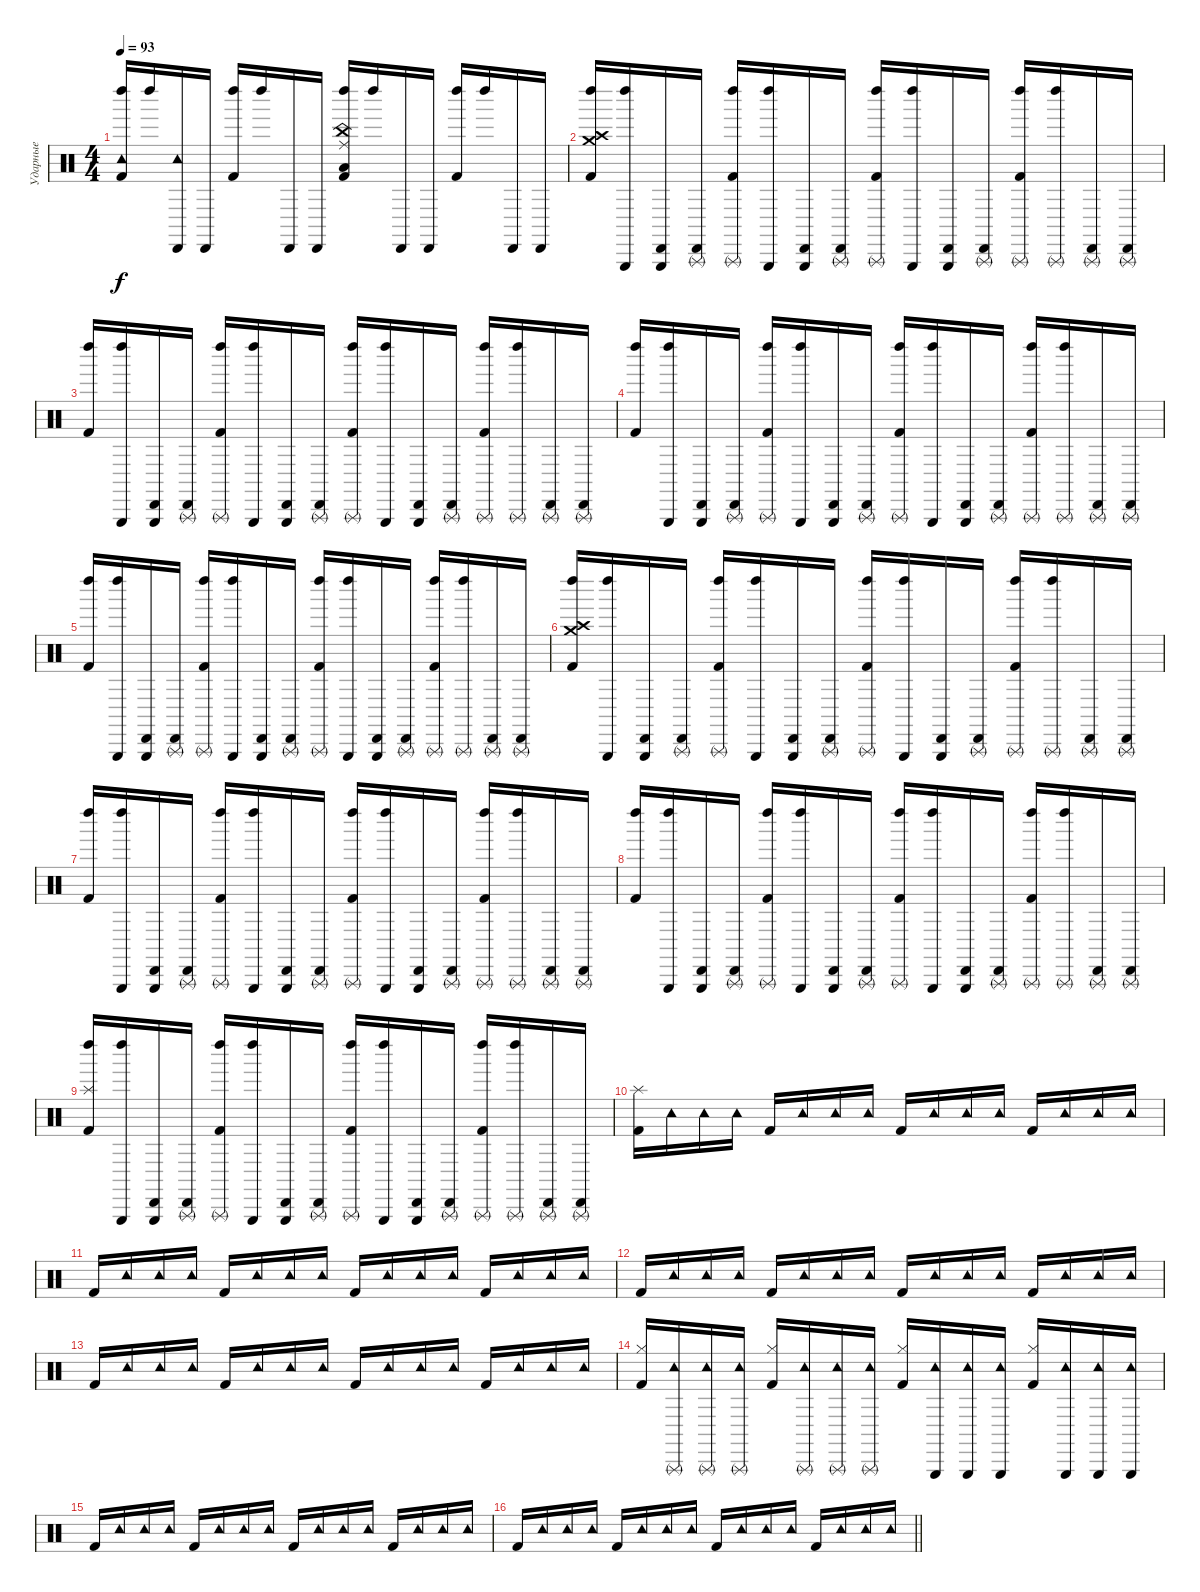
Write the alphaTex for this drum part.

\track ("Ударные" "Ударные") {solo instrument percussion}
\staff {score}
\articulation defaults
\ts (4 4)
\tempo 93
\clef neutral
\ks c
("Kick (hit) 2" "Left Maraca (hit)" "Tambourine (hit)").16{dy f} "Left Maraca (hit)".16 ("Cabasa (hit)" "Tambourine (hit)").16 "Cabasa (hit)".16 ("Kick (hit) 2" "Left Maraca (hit)").16 "Left Maraca (hit)".16 "Cabasa (hit)".16 "Cabasa (hit)".16 ("Kick (hit) 2" "Left Maraca (hit)" "Low Tom (hit)" "Ride (middle)" "China (hit)").16 "Left Maraca (hit)".16 "Cabasa (hit)".16 "Cabasa (hit)".16 ("Kick (hit) 2" "Left Maraca (hit)").16 "Left Maraca (hit)".16 "Cabasa (hit)".16 "Cabasa (hit)".16 |
("Kick (hit) 2" "Left Maraca (hit)" "Crash high (hit)" "Crash medium (hit)").16 ("Left Maraca (hit)" "Triangle (hit)").16 ("Cabasa (hit)" "Triangle (hit)").16 ("Cabasa (hit)" "Triangle (rnute)").16 ("Kick (hit) 2" "Left Maraca (hit)" "Triangle (rnute)").16 ("Left Maraca (hit)" "Triangle (hit)").16 ("Cabasa (hit)" "Triangle (hit)").16 ("Cabasa (hit)" "Triangle (rnute)").16 ("Kick (hit) 2" "Left Maraca (hit)" "Triangle (rnute)").16 ("Left Maraca (hit)" "Triangle (hit)").16 ("Cabasa (hit)" "Triangle (hit)").16 ("Cabasa (hit)" "Triangle (rnute)").16 ("Kick (hit) 2" "Left Maraca (hit)" "Triangle (rnute)").16 ("Left Maraca (hit)" "Triangle (rnute)").16 ("Cabasa (hit)" "Triangle (rnute)").16 ("Cabasa (hit)" "Triangle (rnute)").16 |
("Kick (hit) 2" "Left Maraca (hit)").16 ("Left Maraca (hit)" "Triangle (hit)").16 ("Cabasa (hit)" "Triangle (hit)").16 ("Cabasa (hit)" "Triangle (rnute)").16 ("Kick (hit) 2" "Left Maraca (hit)" "Triangle (rnute)").16 ("Left Maraca (hit)" "Triangle (hit)").16 ("Cabasa (hit)" "Triangle (hit)").16 ("Cabasa (hit)" "Triangle (rnute)").16 ("Kick (hit) 2" "Left Maraca (hit)" "Triangle (rnute)").16 ("Left Maraca (hit)" "Triangle (hit)").16 ("Cabasa (hit)" "Triangle (hit)").16 ("Cabasa (hit)" "Triangle (rnute)").16 ("Kick (hit) 2" "Left Maraca (hit)" "Triangle (rnute)").16 ("Left Maraca (hit)" "Triangle (rnute)").16 ("Cabasa (hit)" "Triangle (rnute)").16 ("Cabasa (hit)" "Triangle (rnute)").16 |
("Kick (hit) 2" "Left Maraca (hit)").16 ("Left Maraca (hit)" "Triangle (hit)").16 ("Cabasa (hit)" "Triangle (hit)").16 ("Cabasa (hit)" "Triangle (rnute)").16 ("Kick (hit) 2" "Left Maraca (hit)" "Triangle (rnute)").16 ("Left Maraca (hit)" "Triangle (hit)").16 ("Cabasa (hit)" "Triangle (hit)").16 ("Cabasa (hit)" "Triangle (rnute)").16 ("Kick (hit) 2" "Left Maraca (hit)" "Triangle (rnute)").16 ("Left Maraca (hit)" "Triangle (hit)").16 ("Cabasa (hit)" "Triangle (hit)").16 ("Cabasa (hit)" "Triangle (rnute)").16 ("Kick (hit) 2" "Left Maraca (hit)" "Triangle (rnute)").16 ("Left Maraca (hit)" "Triangle (rnute)").16 ("Cabasa (hit)" "Triangle (rnute)").16 ("Cabasa (hit)" "Triangle (rnute)").16 |
("Kick (hit) 2" "Left Maraca (hit)").16 ("Left Maraca (hit)" "Triangle (hit)").16 ("Cabasa (hit)" "Triangle (hit)").16 ("Cabasa (hit)" "Triangle (rnute)").16 ("Kick (hit) 2" "Left Maraca (hit)" "Triangle (rnute)").16 ("Left Maraca (hit)" "Triangle (hit)").16 ("Cabasa (hit)" "Triangle (hit)").16 ("Cabasa (hit)" "Triangle (rnute)").16 ("Kick (hit) 2" "Left Maraca (hit)" "Triangle (rnute)").16 ("Left Maraca (hit)" "Triangle (hit)").16 ("Cabasa (hit)" "Triangle (hit)").16 ("Cabasa (hit)" "Triangle (rnute)").16 ("Kick (hit) 2" "Left Maraca (hit)" "Triangle (rnute)").16 ("Left Maraca (hit)" "Triangle (rnute)").16 ("Cabasa (hit)" "Triangle (rnute)").16 ("Cabasa (hit)" "Triangle (rnute)").16 |
("Kick (hit) 2" "Left Maraca (hit)" "Crash high (hit)" "Crash medium (hit)").16 ("Left Maraca (hit)" "Triangle (hit)").16 ("Cabasa (hit)" "Triangle (hit)").16 ("Cabasa (hit)" "Triangle (rnute)").16 ("Kick (hit) 2" "Left Maraca (hit)" "Triangle (rnute)").16 ("Left Maraca (hit)" "Triangle (hit)").16 ("Cabasa (hit)" "Triangle (hit)").16 ("Cabasa (hit)" "Triangle (rnute)").16 ("Kick (hit) 2" "Left Maraca (hit)" "Triangle (rnute)").16 ("Left Maraca (hit)" "Triangle (hit)").16 ("Cabasa (hit)" "Triangle (hit)").16 ("Cabasa (hit)" "Triangle (rnute)").16 ("Kick (hit) 2" "Left Maraca (hit)" "Triangle (rnute)").16 ("Left Maraca (hit)" "Triangle (rnute)").16 ("Cabasa (hit)" "Triangle (rnute)").16 ("Cabasa (hit)" "Triangle (rnute)").16 |
("Kick (hit) 2" "Left Maraca (hit)").16 ("Left Maraca (hit)" "Triangle (hit)").16 ("Cabasa (hit)" "Triangle (hit)").16 ("Cabasa (hit)" "Triangle (rnute)").16 ("Kick (hit) 2" "Left Maraca (hit)" "Triangle (rnute)").16 ("Left Maraca (hit)" "Triangle (hit)").16 ("Cabasa (hit)" "Triangle (hit)").16 ("Cabasa (hit)" "Triangle (rnute)").16 ("Kick (hit) 2" "Left Maraca (hit)" "Triangle (rnute)").16 ("Left Maraca (hit)" "Triangle (hit)").16 ("Cabasa (hit)" "Triangle (hit)").16 ("Cabasa (hit)" "Triangle (rnute)").16 ("Kick (hit) 2" "Left Maraca (hit)" "Triangle (rnute)").16 ("Left Maraca (hit)" "Triangle (rnute)").16 ("Cabasa (hit)" "Triangle (rnute)").16 ("Cabasa (hit)" "Triangle (rnute)").16 |
("Kick (hit) 2" "Left Maraca (hit)").16 ("Left Maraca (hit)" "Triangle (hit)").16 ("Cabasa (hit)" "Triangle (hit)").16 ("Cabasa (hit)" "Triangle (rnute)").16 ("Kick (hit) 2" "Left Maraca (hit)" "Triangle (rnute)").16 ("Left Maraca (hit)" "Triangle (hit)").16 ("Cabasa (hit)" "Triangle (hit)").16 ("Cabasa (hit)" "Triangle (rnute)").16 ("Kick (hit) 2" "Left Maraca (hit)" "Triangle (rnute)").16 ("Left Maraca (hit)" "Triangle (hit)").16 ("Cabasa (hit)" "Triangle (hit)").16 ("Cabasa (hit)" "Triangle (rnute)").16 ("Kick (hit) 2" "Left Maraca (hit)" "Triangle (rnute)").16 ("Left Maraca (hit)" "Triangle (rnute)").16 ("Cabasa (hit)" "Triangle (rnute)").16 ("Cabasa (hit)" "Triangle (rnute)").16 |
("Kick (hit) 2" "Left Maraca (hit)" "Splash (hit)").16 ("Left Maraca (hit)" "Triangle (hit)").16 ("Cabasa (hit)" "Triangle (hit)").16 ("Cabasa (hit)" "Triangle (rnute)").16 ("Kick (hit) 2" "Left Maraca (hit)" "Triangle (rnute)").16 ("Left Maraca (hit)" "Triangle (hit)").16 ("Cabasa (hit)" "Triangle (hit)").16 ("Cabasa (hit)" "Triangle (rnute)").16 ("Kick (hit) 2" "Left Maraca (hit)" "Triangle (rnute)").16 ("Left Maraca (hit)" "Triangle (hit)").16 ("Cabasa (hit)" "Triangle (hit)").16 ("Cabasa (hit)" "Triangle (rnute)").16 ("Kick (hit) 2" "Left Maraca (hit)" "Triangle (rnute)").16 ("Left Maraca (hit)" "Triangle (rnute)").16 ("Cabasa (hit)" "Triangle (rnute)").16 ("Cabasa (hit)" "Triangle (rnute)").16 |
("Kick (hit) 2" "Splash (hit)").16 "Tambourine (hit)".16 "Tambourine (hit)".16 "Tambourine (hit)".16 "Kick (hit) 2".16 "Tambourine (hit)".16 "Tambourine (hit)".16 "Tambourine (hit)".16 "Kick (hit) 2".16 "Tambourine (hit)".16 "Tambourine (hit)".16 "Tambourine (hit)".16 "Kick (hit) 2".16 "Tambourine (hit)".16 "Tambourine (hit)".16 "Tambourine (hit)".16 |
"Kick (hit) 2".16 "Tambourine (hit)".16 "Tambourine (hit)".16 "Tambourine (hit)".16 "Kick (hit) 2".16 "Tambourine (hit)".16 "Tambourine (hit)".16 "Tambourine (hit)".16 "Kick (hit) 2".16 "Tambourine (hit)".16 "Tambourine (hit)".16 "Tambourine (hit)".16 "Kick (hit) 2".16 "Tambourine (hit)".16 "Tambourine (hit)".16 "Tambourine (hit)".16 |
"Kick (hit) 2".16 "Tambourine (hit)".16 "Tambourine (hit)".16 "Tambourine (hit)".16 "Kick (hit) 2".16 "Tambourine (hit)".16 "Tambourine (hit)".16 "Tambourine (hit)".16 "Kick (hit) 2".16 "Tambourine (hit)".16 "Tambourine (hit)".16 "Tambourine (hit)".16 "Kick (hit) 2".16 "Tambourine (hit)".16 "Tambourine (hit)".16 "Tambourine (hit)".16 |
"Kick (hit) 2".16 "Tambourine (hit)".16 "Tambourine (hit)".16 "Tambourine (hit)".16 "Kick (hit) 2".16 "Tambourine (hit)".16 "Tambourine (hit)".16 "Tambourine (hit)".16 "Kick (hit) 2".16 "Tambourine (hit)".16 "Tambourine (hit)".16 "Tambourine (hit)".16 "Kick (hit) 2".16 "Tambourine (hit)".16 "Tambourine (hit)".16 "Tambourine (hit)".16 |
("Kick (hit) 2" "Hi-Hat (closed)").16 ("Tambourine (hit)" "Triangle (rnute)").16 ("Tambourine (hit)" "Triangle (rnute)").16 ("Tambourine (hit)" "Triangle (rnute)").16 ("Kick (hit) 2" "Hi-Hat (closed)").16 ("Tambourine (hit)" "Triangle (rnute)").16 ("Tambourine (hit)" "Triangle (rnute)").16 ("Tambourine (hit)" "Triangle (rnute)").16 ("Kick (hit) 2" "Hi-Hat (closed)").16 ("Tambourine (hit)" "Triangle (hit)").16 ("Tambourine (hit)" "Triangle (hit)").16 ("Tambourine (hit)" "Triangle (hit)").16 ("Kick (hit) 2" "Hi-Hat (closed)").16 ("Tambourine (hit)" "Triangle (hit)").16 ("Tambourine (hit)" "Triangle (hit)").16 ("Tambourine (hit)" "Triangle (hit)").16 |
"Kick (hit) 2".16 "Tambourine (hit)".16 "Tambourine (hit)".16 "Tambourine (hit)".16 "Kick (hit) 2".16 "Tambourine (hit)".16 "Tambourine (hit)".16 "Tambourine (hit)".16 "Kick (hit) 2".16 "Tambourine (hit)".16 "Tambourine (hit)".16 "Tambourine (hit)".16 "Kick (hit) 2".16 "Tambourine (hit)".16 "Tambourine (hit)".16 "Tambourine (hit)".16 |
\barLineRight lightlight "Kick (hit) 2".16 "Tambourine (hit)".16 "Tambourine (hit)".16 "Tambourine (hit)".16 "Kick (hit) 2".16 "Tambourine (hit)".16 "Tambourine (hit)".16 "Tambourine (hit)".16 "Kick (hit) 2".16 "Tambourine (hit)".16 "Tambourine (hit)".16 "Tambourine (hit)".16 "Kick (hit) 2".16 "Tambourine (hit)".16 "Tambourine (hit)".16 "Tambourine (hit)".16
